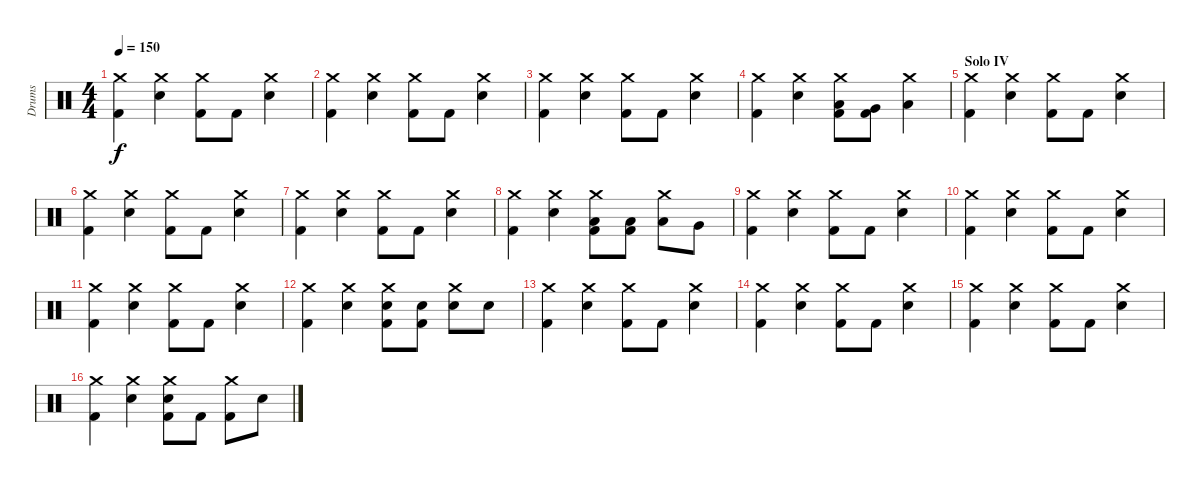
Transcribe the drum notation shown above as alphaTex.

\track ("Drums" "Drums") {instrument percussion}
\staff {score}
\articulation defaults
\ts (4 4)
\tempo 150
\clef neutral
\ks c
("Crash medium (hit)" "Kick (hit) 2").4{dy f} ("Crash medium (hit)" "Snare (hit) 2").4 ("Crash medium (hit)" "Kick (hit) 2").8 "Kick (hit) 2".8 ("Crash medium (hit)" "Snare (hit) 2").4 |
("Crash medium (hit)" "Kick (hit) 2").4 ("Crash medium (hit)" "Snare (hit) 2").4 ("Crash medium (hit)" "Kick (hit) 2").8 "Kick (hit) 2".8 ("Crash medium (hit)" "Snare (hit) 2").4 |
("Crash medium (hit)" "Kick (hit) 2").4 ("Crash medium (hit)" "Snare (hit) 2").4 ("Crash medium (hit)" "Kick (hit) 2").8 "Kick (hit) 2".8 ("Crash medium (hit)" "Snare (hit) 2").4 |
("Crash medium (hit)" "Kick (hit) 2").4 ("Crash medium (hit)" "Snare (hit) 2").4 ("Crash medium (hit)" "Low Tom (hit)" "Kick (hit) 2").8 ("Very Low Tom (hit)" "Kick (hit) 2").8 ("Crash medium (hit)" "Low Tom (hit)").4 |
\section ("" "Solo IV")
("Crash medium (hit)" "Kick (hit) 2").4 ("Crash medium (hit)" "Snare (hit) 2").4 ("Crash medium (hit)" "Kick (hit) 2").8 "Kick (hit) 2".8 ("Crash medium (hit)" "Snare (hit) 2").4 |
("Crash medium (hit)" "Kick (hit) 2").4 ("Crash medium (hit)" "Snare (hit) 2").4 ("Crash medium (hit)" "Kick (hit) 2").8 "Kick (hit) 2".8 ("Crash medium (hit)" "Snare (hit) 2").4 |
("Crash medium (hit)" "Kick (hit) 2").4 ("Crash medium (hit)" "Snare (hit) 2").4 ("Crash medium (hit)" "Kick (hit) 2").8 "Kick (hit) 2".8 ("Crash medium (hit)" "Snare (hit) 2").4 |
("Crash medium (hit)" "Kick (hit) 2").4 ("Crash medium (hit)" "Snare (hit) 2").4 ("Crash medium (hit)" "Low Tom (hit)" "Kick (hit) 2").8 ("Low Tom (hit)" "Kick (hit) 2").8 ("Crash medium (hit)" "Low Tom (hit)").8 "Very Low Tom (hit)".8 |
("Crash medium (hit)" "Kick (hit) 2").4 ("Crash medium (hit)" "Snare (hit) 2").4 ("Crash medium (hit)" "Kick (hit) 2").8 "Kick (hit) 2".8 ("Crash medium (hit)" "Snare (hit) 2").4 |
("Crash medium (hit)" "Kick (hit) 2").4 ("Crash medium (hit)" "Snare (hit) 2").4 ("Crash medium (hit)" "Kick (hit) 2").8 "Kick (hit) 2".8 ("Crash medium (hit)" "Snare (hit) 2").4 |
("Crash medium (hit)" "Kick (hit) 2").4 ("Crash medium (hit)" "Snare (hit) 2").4 ("Crash medium (hit)" "Kick (hit) 2").8 "Kick (hit) 2".8 ("Crash medium (hit)" "Snare (hit) 2").4 |
("Crash medium (hit)" "Kick (hit) 2").4 ("Crash medium (hit)" "Snare (hit) 2").4 ("Crash medium (hit)" "Snare (hit) 2" "Kick (hit) 2").8 ("Snare (hit) 2" "Kick (hit) 2").8 ("Crash medium (hit)" "Snare (hit) 2").8 "Snare (hit) 2".8 |
("Crash medium (hit)" "Kick (hit) 2").4 ("Crash medium (hit)" "Snare (hit) 2").4 ("Crash medium (hit)" "Kick (hit) 2").8 "Kick (hit) 2".8 ("Crash medium (hit)" "Snare (hit) 2").4 |
("Crash medium (hit)" "Kick (hit) 2").4 ("Crash medium (hit)" "Snare (hit) 2").4 ("Crash medium (hit)" "Kick (hit) 2").8 "Kick (hit) 2".8 ("Crash medium (hit)" "Snare (hit) 2").4 |
("Crash medium (hit)" "Kick (hit) 2").4 ("Crash medium (hit)" "Snare (hit) 2").4 ("Crash medium (hit)" "Kick (hit) 2").8 "Kick (hit) 2".8 ("Crash medium (hit)" "Snare (hit) 2").4 |
("Crash medium (hit)" "Kick (hit) 2").4 ("Crash medium (hit)" "Snare (hit) 2").4 ("Crash medium (hit)" "Snare (hit) 2" "Kick (hit) 2").8 "Kick (hit) 2".8 ("Crash medium (hit)" "Kick (hit) 2").8 "Snare (hit) 2".8
